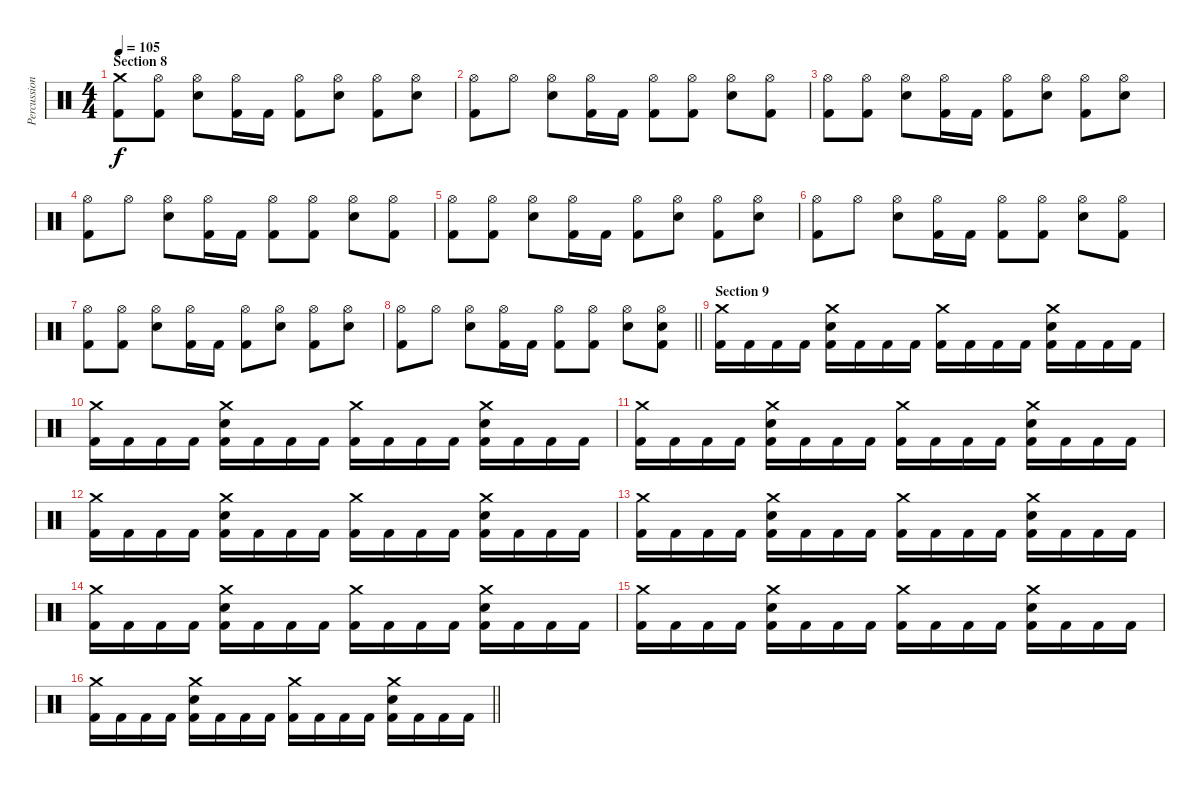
\track ("Percussion" "Percussion") {instrument percussion}
\staff {score}
\articulation defaults
\ts (4 4)
\section ("" "Section 8")
\tempo 105
\clef neutral
\ks c
("Crash medium (hit)" "Kick (hit) 2").8{dy f volume 13} ("Hi-Hat (open)" "Kick (hit) 2").8 ("Hi-Hat (open)" "Electric Snare (hit)").8 ("Hi-Hat (open)" "Kick (hit) 2").16 "Kick (hit) 2".16 ("Hi-Hat (open)" "Kick (hit) 2").8 ("Hi-Hat (open)" "Electric Snare (hit)").8 ("Hi-Hat (open)" "Kick (hit) 2").8 ("Hi-Hat (open)" "Electric Snare (hit)").8 |
("Hi-Hat (open)" "Kick (hit) 2").8 "Hi-Hat (open)".8 ("Hi-Hat (open)" "Electric Snare (hit)").8 ("Hi-Hat (open)" "Kick (hit) 2").16 "Kick (hit) 2".16 ("Hi-Hat (open)" "Kick (hit) 2").8 ("Hi-Hat (open)" "Kick (hit) 2").8 ("Hi-Hat (open)" "Electric Snare (hit)").8 ("Hi-Hat (open)" "Kick (hit) 2").8 |
("Hi-Hat (open)" "Kick (hit) 2").8 ("Hi-Hat (open)" "Kick (hit) 2").8 ("Hi-Hat (open)" "Electric Snare (hit)").8 ("Hi-Hat (open)" "Kick (hit) 2").16 "Kick (hit) 2".16 ("Hi-Hat (open)" "Kick (hit) 2").8 ("Hi-Hat (open)" "Electric Snare (hit)").8 ("Hi-Hat (open)" "Kick (hit) 2").8 ("Hi-Hat (open)" "Electric Snare (hit)").8 |
("Hi-Hat (open)" "Kick (hit) 2").8 "Hi-Hat (open)".8 ("Hi-Hat (open)" "Electric Snare (hit)").8 ("Hi-Hat (open)" "Kick (hit) 2").16 "Kick (hit) 2".16 ("Hi-Hat (open)" "Kick (hit) 2").8 ("Hi-Hat (open)" "Kick (hit) 2").8 ("Hi-Hat (open)" "Electric Snare (hit)").8 ("Hi-Hat (open)" "Kick (hit) 2").8 |
("Hi-Hat (open)" "Kick (hit) 2").8 ("Hi-Hat (open)" "Kick (hit) 2").8 ("Hi-Hat (open)" "Electric Snare (hit)").8 ("Hi-Hat (open)" "Kick (hit) 2").16 "Kick (hit) 2".16 ("Hi-Hat (open)" "Kick (hit) 2").8 ("Hi-Hat (open)" "Electric Snare (hit)").8 ("Hi-Hat (open)" "Kick (hit) 2").8 ("Hi-Hat (open)" "Electric Snare (hit)").8 |
("Hi-Hat (open)" "Kick (hit) 2").8 "Hi-Hat (open)".8 ("Hi-Hat (open)" "Electric Snare (hit)").8 ("Hi-Hat (open)" "Kick (hit) 2").16 "Kick (hit) 2".16 ("Hi-Hat (open)" "Kick (hit) 2").8 ("Hi-Hat (open)" "Kick (hit) 2").8 ("Hi-Hat (open)" "Electric Snare (hit)").8 ("Hi-Hat (open)" "Kick (hit) 2").8 |
("Hi-Hat (open)" "Kick (hit) 2").8 ("Hi-Hat (open)" "Kick (hit) 2").8 ("Hi-Hat (open)" "Electric Snare (hit)").8 ("Hi-Hat (open)" "Kick (hit) 2").16 "Kick (hit) 2".16 ("Hi-Hat (open)" "Kick (hit) 2").8 ("Hi-Hat (open)" "Electric Snare (hit)").8 ("Hi-Hat (open)" "Kick (hit) 2").8 ("Hi-Hat (open)" "Electric Snare (hit)").8 |
\barLineRight lightlight
("Hi-Hat (open)" "Kick (hit) 2").8 "Hi-Hat (open)".8 ("Hi-Hat (open)" "Electric Snare (hit)").8 ("Hi-Hat (open)" "Kick (hit) 2").16 "Kick (hit) 2".16 ("Hi-Hat (open)" "Kick (hit) 2").8 ("Hi-Hat (open)" "Kick (hit) 2").8 ("Hi-Hat (open)" "Electric Snare (hit)").8 ("Hi-Hat (open)" "Electric Snare (hit)" "Kick (hit) 2").8 |
\section ("" "Section 9")
("Crash medium (hit)" "Kick (hit) 2").16 "Kick (hit) 2".16 "Kick (hit) 2".16 "Kick (hit) 2".16 ("Crash medium (hit)" "Electric Snare (hit)" "Kick (hit) 2").16 "Kick (hit) 2".16 "Kick (hit) 2".16 "Kick (hit) 2".16 ("Crash medium (hit)" "Kick (hit) 2").16 "Kick (hit) 2".16 "Kick (hit) 2".16 "Kick (hit) 2".16 ("Crash medium (hit)" "Electric Snare (hit)" "Kick (hit) 2").16 "Kick (hit) 2".16 "Kick (hit) 2".16 "Kick (hit) 2".16 |
("Crash medium (hit)" "Kick (hit) 2").16 "Kick (hit) 2".16 "Kick (hit) 2".16 "Kick (hit) 2".16 ("Crash medium (hit)" "Electric Snare (hit)" "Kick (hit) 2").16 "Kick (hit) 2".16 "Kick (hit) 2".16 "Kick (hit) 2".16 ("Crash medium (hit)" "Kick (hit) 2").16 "Kick (hit) 2".16 "Kick (hit) 2".16 "Kick (hit) 2".16 ("Crash medium (hit)" "Electric Snare (hit)" "Kick (hit) 2").16 "Kick (hit) 2".16 "Kick (hit) 2".16 "Kick (hit) 2".16 |
("Crash medium (hit)" "Kick (hit) 2").16 "Kick (hit) 2".16 "Kick (hit) 2".16 "Kick (hit) 2".16 ("Crash medium (hit)" "Electric Snare (hit)" "Kick (hit) 2").16 "Kick (hit) 2".16 "Kick (hit) 2".16 "Kick (hit) 2".16 ("Crash medium (hit)" "Kick (hit) 2").16 "Kick (hit) 2".16 "Kick (hit) 2".16 "Kick (hit) 2".16 ("Crash medium (hit)" "Electric Snare (hit)" "Kick (hit) 2").16 "Kick (hit) 2".16 "Kick (hit) 2".16 "Kick (hit) 2".16 |
("Crash medium (hit)" "Kick (hit) 2").16 "Kick (hit) 2".16 "Kick (hit) 2".16 "Kick (hit) 2".16 ("Crash medium (hit)" "Electric Snare (hit)" "Kick (hit) 2").16 "Kick (hit) 2".16 "Kick (hit) 2".16 "Kick (hit) 2".16 ("Crash medium (hit)" "Kick (hit) 2").16 "Kick (hit) 2".16 "Kick (hit) 2".16 "Kick (hit) 2".16 ("Crash medium (hit)" "Electric Snare (hit)" "Kick (hit) 2").16 "Kick (hit) 2".16 "Kick (hit) 2".16 "Kick (hit) 2".16 |
("Crash medium (hit)" "Kick (hit) 2").16 "Kick (hit) 2".16 "Kick (hit) 2".16 "Kick (hit) 2".16 ("Crash medium (hit)" "Electric Snare (hit)" "Kick (hit) 2").16 "Kick (hit) 2".16 "Kick (hit) 2".16 "Kick (hit) 2".16 ("Crash medium (hit)" "Kick (hit) 2").16 "Kick (hit) 2".16 "Kick (hit) 2".16 "Kick (hit) 2".16 ("Crash medium (hit)" "Electric Snare (hit)" "Kick (hit) 2").16 "Kick (hit) 2".16 "Kick (hit) 2".16 "Kick (hit) 2".16 |
("Crash medium (hit)" "Kick (hit) 2").16 "Kick (hit) 2".16 "Kick (hit) 2".16 "Kick (hit) 2".16 ("Crash medium (hit)" "Electric Snare (hit)" "Kick (hit) 2").16 "Kick (hit) 2".16 "Kick (hit) 2".16 "Kick (hit) 2".16 ("Crash medium (hit)" "Kick (hit) 2").16 "Kick (hit) 2".16 "Kick (hit) 2".16 "Kick (hit) 2".16 ("Crash medium (hit)" "Electric Snare (hit)" "Kick (hit) 2").16 "Kick (hit) 2".16 "Kick (hit) 2".16 "Kick (hit) 2".16 |
("Crash medium (hit)" "Kick (hit) 2").16 "Kick (hit) 2".16 "Kick (hit) 2".16 "Kick (hit) 2".16 ("Crash medium (hit)" "Electric Snare (hit)" "Kick (hit) 2").16 "Kick (hit) 2".16 "Kick (hit) 2".16 "Kick (hit) 2".16 ("Crash medium (hit)" "Kick (hit) 2").16 "Kick (hit) 2".16 "Kick (hit) 2".16 "Kick (hit) 2".16 ("Crash medium (hit)" "Electric Snare (hit)" "Kick (hit) 2").16 "Kick (hit) 2".16 "Kick (hit) 2".16 "Kick (hit) 2".16 |
\barLineRight lightlight
("Crash medium (hit)" "Kick (hit) 2").16 "Kick (hit) 2".16 "Kick (hit) 2".16 "Kick (hit) 2".16 ("Crash medium (hit)" "Electric Snare (hit)" "Kick (hit) 2").16 "Kick (hit) 2".16 "Kick (hit) 2".16 "Kick (hit) 2".16 ("Crash medium (hit)" "Kick (hit) 2").16 "Kick (hit) 2".16 "Kick (hit) 2".16 "Kick (hit) 2".16 ("Crash medium (hit)" "Electric Snare (hit)" "Kick (hit) 2").16 "Kick (hit) 2".16 "Kick (hit) 2".16 "Kick (hit) 2".16
